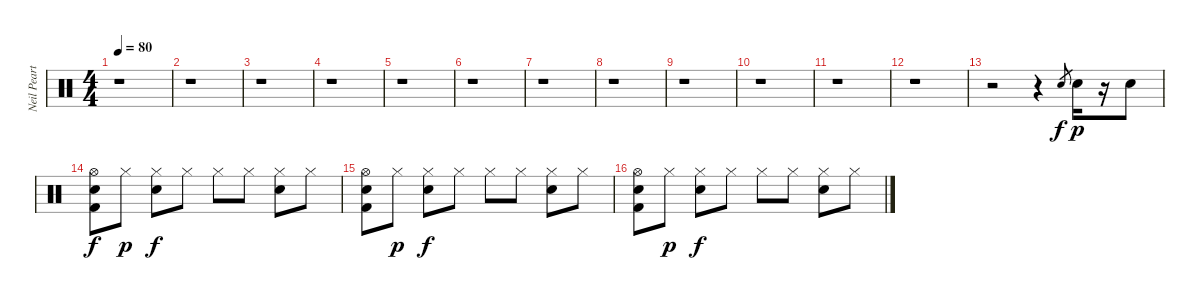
\track ("Neil Peart" "Neil Peart") {instrument percussion}
\staff {score}
\articulation defaults
\ts (4 4)
\tempo 80
\clef neutral
\ks c
r.1{dy p} |
r.1 |
r.1 |
r.1 |
r.1 |
r.1 |
r.1 |
r.1 |
r.1 |
r.1 |
r.1 |
r.1 |
r.2 r.4 "Snare (hit) 2".8{gr dy f} "Snare (hit) 2".16{dy p} r.16 "Snare (hit) 2".8 |
("Hi-Hat (open)" "Snare (hit) 2" "Kick (hit) 2").8{dy f} "Hi-Hat (closed)".8{dy p} ("Hi-Hat (closed)" "Snare (hit) 2").8{dy f} "Hi-Hat (closed)".8 "Hi-Hat (closed)".8 "Hi-Hat (closed)".8 ("Hi-Hat (closed)" "Snare (hit) 2").8 "Hi-Hat (closed)".8 |
("Hi-Hat (open)" "Snare (hit) 2" "Kick (hit) 2").8 "Hi-Hat (closed)".8{dy p} ("Hi-Hat (closed)" "Snare (hit) 2").8{dy f} "Hi-Hat (closed)".8 "Hi-Hat (closed)".8 "Hi-Hat (closed)".8 ("Hi-Hat (closed)" "Snare (hit) 2").8 "Hi-Hat (closed)".8 |
("Hi-Hat (open)" "Snare (hit) 2" "Kick (hit) 2").8 "Hi-Hat (closed)".8{dy p} ("Hi-Hat (closed)" "Snare (hit) 2").8{dy f} "Hi-Hat (closed)".8 "Hi-Hat (closed)".8 "Hi-Hat (closed)".8 ("Hi-Hat (closed)" "Snare (hit) 2").8 "Hi-Hat (closed)".8
